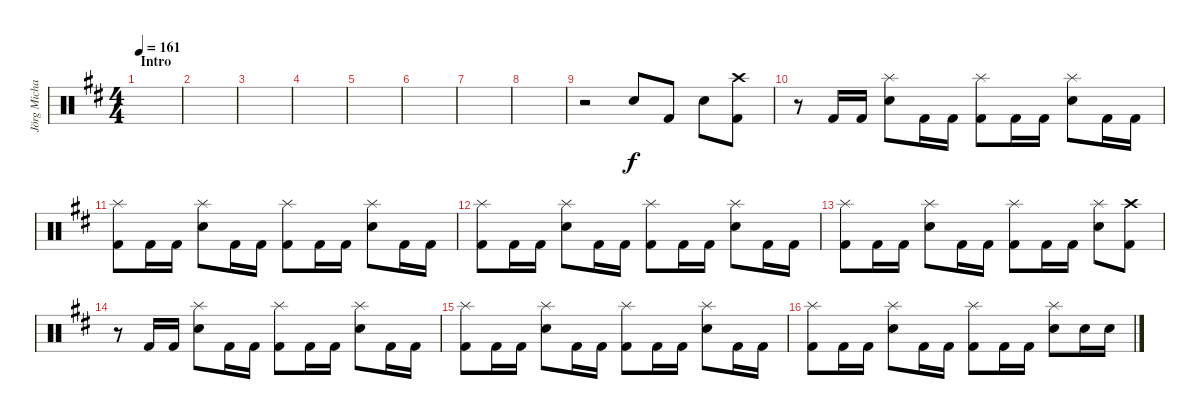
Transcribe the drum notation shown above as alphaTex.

\track ("Jörg Michael" "Jörg Micha") {instrument percussion}
\staff {score}
\articulation defaults
\ts (4 4)
\section ("" "Intro")
\tempo 161
\clef neutral
\ks bminor
|
|
|
|
|
|
|
|
r.2 "Snare (hit) 2".8 "Kick (hit) 2".8 "Snare (hit) 2".8 ("Crash high (hit)" "Kick (hit) 2").8 |
r.8 "Kick (hit) 2".16 "Kick (hit) 2".16 ("Splash (hit)" "Snare (hit) 2").8 "Kick (hit) 2".16 "Kick (hit) 2".16 ("Splash (hit)" "Kick (hit) 2").8 "Kick (hit) 2".16 "Kick (hit) 2".16 ("Splash (hit)" "Snare (hit) 2").8 "Kick (hit) 2".16 "Kick (hit) 2".16 |
("Splash (hit)" "Kick (hit) 2").8 "Kick (hit) 2".16 "Kick (hit) 2".16 ("Splash (hit)" "Snare (hit) 2").8 "Kick (hit) 2".16 "Kick (hit) 2".16 ("Splash (hit)" "Kick (hit) 2").8 "Kick (hit) 2".16 "Kick (hit) 2".16 ("Splash (hit)" "Snare (hit) 2").8 "Kick (hit) 2".16 "Kick (hit) 2".16 |
("Splash (hit)" "Kick (hit) 2").8 "Kick (hit) 2".16 "Kick (hit) 2".16 ("Splash (hit)" "Snare (hit) 2").8 "Kick (hit) 2".16 "Kick (hit) 2".16 ("Splash (hit)" "Kick (hit) 2").8 "Kick (hit) 2".16 "Kick (hit) 2".16 ("Splash (hit)" "Snare (hit) 2").8 "Kick (hit) 2".16 "Kick (hit) 2".16 |
("Splash (hit)" "Kick (hit) 2").8 "Kick (hit) 2".16 "Kick (hit) 2".16 ("Splash (hit)" "Snare (hit) 2").8 "Kick (hit) 2".16 "Kick (hit) 2".16 ("Splash (hit)" "Kick (hit) 2").8 "Kick (hit) 2".16 "Kick (hit) 2".16 ("Splash (hit)" "Snare (hit) 2").8 ("Crash high (hit)" "Kick (hit) 2").8 |
r.8 "Kick (hit) 2".16 "Kick (hit) 2".16 ("Splash (hit)" "Snare (hit) 2").8 "Kick (hit) 2".16 "Kick (hit) 2".16 ("Splash (hit)" "Kick (hit) 2").8 "Kick (hit) 2".16 "Kick (hit) 2".16 ("Splash (hit)" "Snare (hit) 2").8 "Kick (hit) 2".16 "Kick (hit) 2".16 |
("Splash (hit)" "Kick (hit) 2").8 "Kick (hit) 2".16 "Kick (hit) 2".16 ("Splash (hit)" "Snare (hit) 2").8 "Kick (hit) 2".16 "Kick (hit) 2".16 ("Splash (hit)" "Kick (hit) 2").8 "Kick (hit) 2".16 "Kick (hit) 2".16 ("Splash (hit)" "Snare (hit) 2").8 "Kick (hit) 2".16 "Kick (hit) 2".16 |
("Splash (hit)" "Kick (hit) 2").8 "Kick (hit) 2".16 "Kick (hit) 2".16 ("Splash (hit)" "Snare (hit) 2").8 "Kick (hit) 2".16 "Kick (hit) 2".16 ("Splash (hit)" "Kick (hit) 2").8 "Kick (hit) 2".16 "Kick (hit) 2".16 ("Splash (hit)" "Snare (hit) 2").8 "Snare (hit) 2".16 "Snare (hit) 2".16
